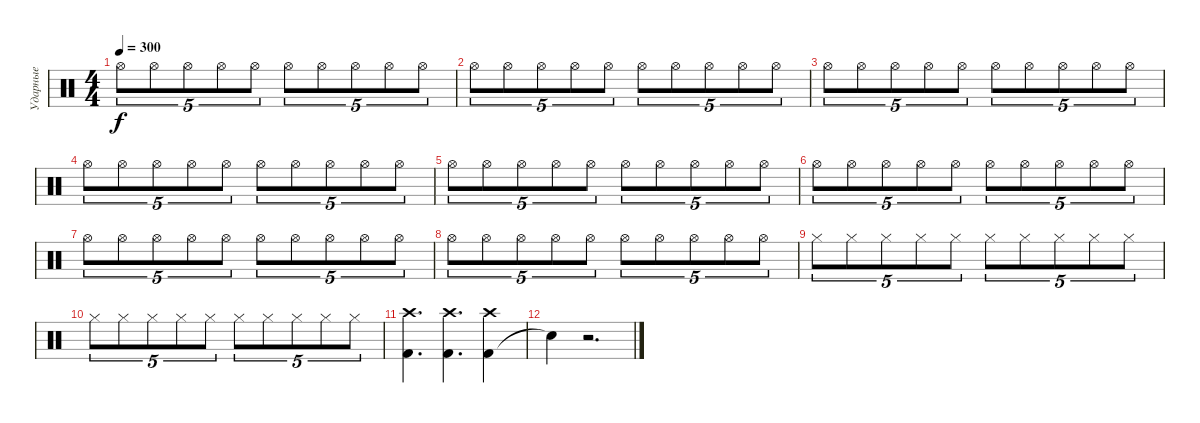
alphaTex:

\track ("Ударные" "Ударные") {instrument percussion}
\staff {score}
\articulation defaults
\ts (4 4)
\tempo 300
\clef neutral
\ks c "Hi-Hat (open)".8{tu (5 4) dy f} "Hi-Hat (open)".8{tu (5 4)} "Hi-Hat (open)".8{tu (5 4)} "Hi-Hat (open)".8{tu (5 4)} "Hi-Hat (open)".8{tu (5 4)} "Hi-Hat (open)".8{tu (5 4)} "Hi-Hat (open)".8{tu (5 4)} "Hi-Hat (open)".8{tu (5 4)} "Hi-Hat (open)".8{tu (5 4)} "Hi-Hat (open)".8{tu (5 4)}
|
"Hi-Hat (open)".8{tu (5 4)} "Hi-Hat (open)".8{tu (5 4)} "Hi-Hat (open)".8{tu (5 4)} "Hi-Hat (open)".8{tu (5 4)} "Hi-Hat (open)".8{tu (5 4)} "Hi-Hat (open)".8{tu (5 4)} "Hi-Hat (open)".8{tu (5 4)} "Hi-Hat (open)".8{tu (5 4)} "Hi-Hat (open)".8{tu (5 4)} "Hi-Hat (open)".8{tu (5 4)} |
"Hi-Hat (open)".8{tu (5 4)} "Hi-Hat (open)".8{tu (5 4)} "Hi-Hat (open)".8{tu (5 4)} "Hi-Hat (open)".8{tu (5 4)} "Hi-Hat (open)".8{tu (5 4)} "Hi-Hat (open)".8{tu (5 4)} "Hi-Hat (open)".8{tu (5 4)} "Hi-Hat (open)".8{tu (5 4)} "Hi-Hat (open)".8{tu (5 4)} "Hi-Hat (open)".8{tu (5 4)} |
"Hi-Hat (open)".8{tu (5 4)} "Hi-Hat (open)".8{tu (5 4)} "Hi-Hat (open)".8{tu (5 4)} "Hi-Hat (open)".8{tu (5 4)} "Hi-Hat (open)".8{tu (5 4)} "Hi-Hat (open)".8{tu (5 4)} "Hi-Hat (open)".8{tu (5 4)} "Hi-Hat (open)".8{tu (5 4)} "Hi-Hat (open)".8{tu (5 4)} "Hi-Hat (open)".8{tu (5 4)} |
"Hi-Hat (open)".8{tu (5 4)} "Hi-Hat (open)".8{tu (5 4)} "Hi-Hat (open)".8{tu (5 4)} "Hi-Hat (open)".8{tu (5 4)} "Hi-Hat (open)".8{tu (5 4)} "Hi-Hat (open)".8{tu (5 4)} "Hi-Hat (open)".8{tu (5 4)} "Hi-Hat (open)".8{tu (5 4)} "Hi-Hat (open)".8{tu (5 4)} "Hi-Hat (open)".8{tu (5 4)} |
"Hi-Hat (open)".8{tu (5 4)} "Hi-Hat (open)".8{tu (5 4)} "Hi-Hat (open)".8{tu (5 4)} "Hi-Hat (open)".8{tu (5 4)} "Hi-Hat (open)".8{tu (5 4)} "Hi-Hat (open)".8{tu (5 4)} "Hi-Hat (open)".8{tu (5 4)} "Hi-Hat (open)".8{tu (5 4)} "Hi-Hat (open)".8{tu (5 4)} "Hi-Hat (open)".8{tu (5 4)} |
"Hi-Hat (open)".8{tu (5 4)} "Hi-Hat (open)".8{tu (5 4)} "Hi-Hat (open)".8{tu (5 4)} "Hi-Hat (open)".8{tu (5 4)} "Hi-Hat (open)".8{tu (5 4)} "Hi-Hat (open)".8{tu (5 4)} "Hi-Hat (open)".8{tu (5 4)} "Hi-Hat (open)".8{tu (5 4)} "Hi-Hat (open)".8{tu (5 4)} "Hi-Hat (open)".8{tu (5 4)} |
"Hi-Hat (open)".8{tu (5 4)} "Hi-Hat (open)".8{tu (5 4)} "Hi-Hat (open)".8{tu (5 4)} "Hi-Hat (open)".8{tu (5 4)} "Hi-Hat (open)".8{tu (5 4)} "Hi-Hat (open)".8{tu (5 4)} "Hi-Hat (open)".8{tu (5 4)} "Hi-Hat (open)".8{tu (5 4)} "Hi-Hat (open)".8{tu (5 4)} "Hi-Hat (open)".8{tu (5 4)} |
"Hi-Hat (closed)".8{tu (5 4)} "Hi-Hat (closed)".8{tu (5 4)} "Hi-Hat (closed)".8{tu (5 4)} "Hi-Hat (closed)".8{tu (5 4)} "Hi-Hat (closed)".8{tu (5 4)} "Hi-Hat (closed)".8{tu (5 4)} "Hi-Hat (closed)".8{tu (5 4)} "Hi-Hat (closed)".8{tu (5 4)} "Hi-Hat (closed)".8{tu (5 4)} "Hi-Hat (closed)".8{tu (5 4)} |
"Hi-Hat (closed)".8{tu (5 4)} "Hi-Hat (closed)".8{tu (5 4)} "Hi-Hat (closed)".8{tu (5 4)} "Hi-Hat (closed)".8{tu (5 4)} "Hi-Hat (closed)".8{tu (5 4)} "Hi-Hat (closed)".8{tu (5 4)} "Hi-Hat (closed)".8{tu (5 4)} "Hi-Hat (closed)".8{tu (5 4)} "Hi-Hat (closed)".8{tu (5 4)} "Hi-Hat (closed)".8{tu (5 4)} |
("Kick (hit) 2" "Crash high (hit)").4{d} ("Kick (hit) 2" "Crash high (hit)").4{d} ("Kick (hit) 2" "Crash high (hit)").4 |
"Snare (hit)"{t}.4 r.2{d}
